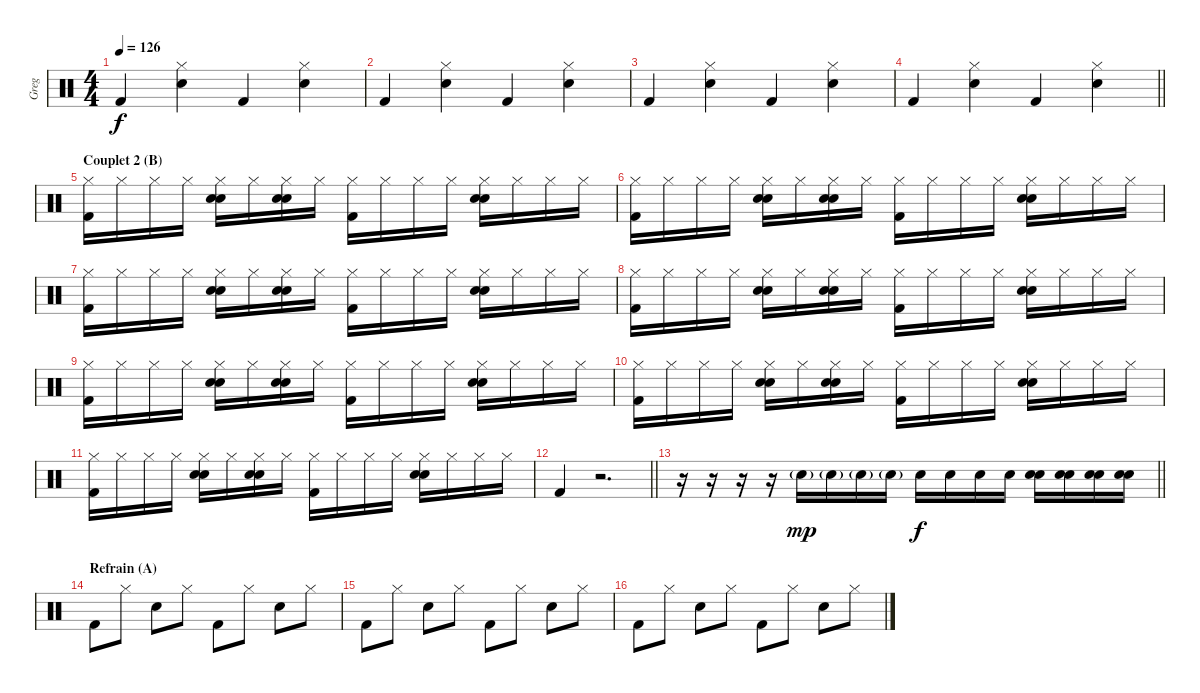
\track ("Greg" "Greg") {instrument percussion}
\staff {score}
\articulation defaults
\ts (4 4)
\tempo 126
\clef neutral
\ks c "Kick (hit) 2".4{dy f}
("Hi-Hat (closed)" "Electric Snare (hit)").4 "Kick (hit) 2".4 ("Hi-Hat (closed)" "Electric Snare (hit)").4 |
"Kick (hit) 2".4 ("Hi-Hat (closed)" "Electric Snare (hit)").4 "Kick (hit) 2".4 ("Hi-Hat (closed)" "Electric Snare (hit)").4 |
"Kick (hit) 2".4 ("Hi-Hat (closed)" "Electric Snare (hit)").4 "Kick (hit) 2".4 ("Hi-Hat (closed)" "Electric Snare (hit)").4 |
\barLineRight lightlight "Kick (hit) 2".4
("Hi-Hat (closed)" "Electric Snare (hit)").4 "Kick (hit) 2".4 ("Hi-Hat (closed)" "Electric Snare (hit)").4 |
\section ("" "Couplet 2 (B)")
("Hi-Hat (closed)" "Kick (hit) 2").16 "Hi-Hat (closed)".16 "Hi-Hat (closed)".16 "Hi-Hat (closed)".16 ("Hi-Hat (closed)" "Snare (hit) 2" "Electric Snare (hit)").16 "Hi-Hat (closed)".16 ("Hi-Hat (closed)" "Snare (hit) 2" "Electric Snare (hit)").16 "Hi-Hat (closed)".16 ("Hi-Hat (closed)" "Kick (hit) 2").16 "Hi-Hat (closed)".16 "Hi-Hat (closed)".16 "Hi-Hat (closed)".16 ("Hi-Hat (closed)" "Snare (hit) 2" "Electric Snare (hit)").16 "Hi-Hat (closed)".16 "Hi-Hat (closed)".16 "Hi-Hat (closed)".16 |
("Hi-Hat (closed)" "Kick (hit) 2").16 "Hi-Hat (closed)".16 "Hi-Hat (closed)".16 "Hi-Hat (closed)".16 ("Hi-Hat (closed)" "Snare (hit) 2" "Electric Snare (hit)").16 "Hi-Hat (closed)".16 ("Hi-Hat (closed)" "Snare (hit) 2" "Electric Snare (hit)").16 "Hi-Hat (closed)".16 ("Hi-Hat (closed)" "Kick (hit) 2").16 "Hi-Hat (closed)".16 "Hi-Hat (closed)".16 "Hi-Hat (closed)".16 ("Hi-Hat (closed)" "Snare (hit) 2" "Electric Snare (hit)").16 "Hi-Hat (closed)".16 "Hi-Hat (closed)".16 "Hi-Hat (closed)".16 |
("Hi-Hat (closed)" "Kick (hit) 2").16 "Hi-Hat (closed)".16 "Hi-Hat (closed)".16 "Hi-Hat (closed)".16 ("Hi-Hat (closed)" "Snare (hit) 2" "Electric Snare (hit)").16 "Hi-Hat (closed)".16 ("Hi-Hat (closed)" "Snare (hit) 2" "Electric Snare (hit)").16 "Hi-Hat (closed)".16 ("Hi-Hat (closed)" "Kick (hit) 2").16 "Hi-Hat (closed)".16 "Hi-Hat (closed)".16 "Hi-Hat (closed)".16 ("Hi-Hat (closed)" "Snare (hit) 2" "Electric Snare (hit)").16 "Hi-Hat (closed)".16 "Hi-Hat (closed)".16 "Hi-Hat (closed)".16 |
("Hi-Hat (closed)" "Kick (hit) 2").16 "Hi-Hat (closed)".16 "Hi-Hat (closed)".16 "Hi-Hat (closed)".16 ("Hi-Hat (closed)" "Snare (hit) 2" "Electric Snare (hit)").16 "Hi-Hat (closed)".16 ("Hi-Hat (closed)" "Snare (hit) 2" "Electric Snare (hit)").16 "Hi-Hat (closed)".16 ("Hi-Hat (closed)" "Kick (hit) 2").16 "Hi-Hat (closed)".16 "Hi-Hat (closed)".16 "Hi-Hat (closed)".16 ("Hi-Hat (closed)" "Snare (hit) 2" "Electric Snare (hit)").16 "Hi-Hat (closed)".16 "Hi-Hat (closed)".16 "Hi-Hat (closed)".16 |
("Hi-Hat (closed)" "Kick (hit) 2").16 "Hi-Hat (closed)".16 "Hi-Hat (closed)".16 "Hi-Hat (closed)".16 ("Hi-Hat (closed)" "Snare (hit) 2" "Electric Snare (hit)").16 "Hi-Hat (closed)".16 ("Hi-Hat (closed)" "Snare (hit) 2" "Electric Snare (hit)").16 "Hi-Hat (closed)".16 ("Hi-Hat (closed)" "Kick (hit) 2").16 "Hi-Hat (closed)".16 "Hi-Hat (closed)".16 "Hi-Hat (closed)".16 ("Hi-Hat (closed)" "Snare (hit) 2" "Electric Snare (hit)").16 "Hi-Hat (closed)".16 "Hi-Hat (closed)".16 "Hi-Hat (closed)".16 |
("Hi-Hat (closed)" "Kick (hit) 2").16 "Hi-Hat (closed)".16 "Hi-Hat (closed)".16 "Hi-Hat (closed)".16 ("Hi-Hat (closed)" "Snare (hit) 2" "Electric Snare (hit)").16 "Hi-Hat (closed)".16 ("Hi-Hat (closed)" "Snare (hit) 2" "Electric Snare (hit)").16 "Hi-Hat (closed)".16 ("Hi-Hat (closed)" "Kick (hit) 2").16 "Hi-Hat (closed)".16 "Hi-Hat (closed)".16 "Hi-Hat (closed)".16 ("Hi-Hat (closed)" "Snare (hit) 2" "Electric Snare (hit)").16 "Hi-Hat (closed)".16 "Hi-Hat (closed)".16 "Hi-Hat (closed)".16 |
("Hi-Hat (closed)" "Kick (hit) 2").16 "Hi-Hat (closed)".16 "Hi-Hat (closed)".16 "Hi-Hat (closed)".16 ("Hi-Hat (closed)" "Snare (hit) 2" "Electric Snare (hit)").16 "Hi-Hat (closed)".16 ("Hi-Hat (closed)" "Snare (hit) 2" "Electric Snare (hit)").16 "Hi-Hat (closed)".16 ("Hi-Hat (closed)" "Kick (hit) 2").16 "Hi-Hat (closed)".16 "Hi-Hat (closed)".16 "Hi-Hat (closed)".16 ("Hi-Hat (closed)" "Snare (hit) 2" "Electric Snare (hit)").16 "Hi-Hat (closed)".16 "Hi-Hat (closed)".16 "Hi-Hat (closed)".16 |
\barLineRight lightlight "Kick (hit) 2".4
r.2{d} |
\barLineRight lightlight
r.16 r.16 r.16 r.16 "Electric Snare (hit)"{g}.16{dy mp volume 3} "Electric Snare (hit)"{g}.16{volume 16} "Electric Snare (hit)"{g}.16 "Electric Snare (hit)"{g}.16 "Electric Snare (hit)".16{dy f} "Electric Snare (hit)".16 "Electric Snare (hit)".16 "Electric Snare (hit)".16 ("Electric Snare (hit)" "Electric Snare (hit)").16 ("Electric Snare (hit)" "Electric Snare (hit)").16 ("Electric Snare (hit)" "Electric Snare (hit)").16 ("Electric Snare (hit)" "Electric Snare (hit)").16 |
\section ("" "Refrain (A)")
"Kick (hit) 2".8 "Hi-Hat (closed)".8 "Electric Snare (hit)".8 "Hi-Hat (closed)".8 "Kick (hit) 2".8 "Hi-Hat (closed)".8 "Electric Snare (hit)".8 "Hi-Hat (closed)".8 |
"Kick (hit) 2".8 "Hi-Hat (closed)".8 "Electric Snare (hit)".8 "Hi-Hat (closed)".8 "Kick (hit) 2".8 "Hi-Hat (closed)".8 "Electric Snare (hit)".8 "Hi-Hat (closed)".8 |
"Kick (hit) 2".8 "Hi-Hat (closed)".8 "Electric Snare (hit)".8 "Hi-Hat (closed)".8 "Kick (hit) 2".8 "Hi-Hat (closed)".8 "Electric Snare (hit)".8 "Hi-Hat (closed)".8
